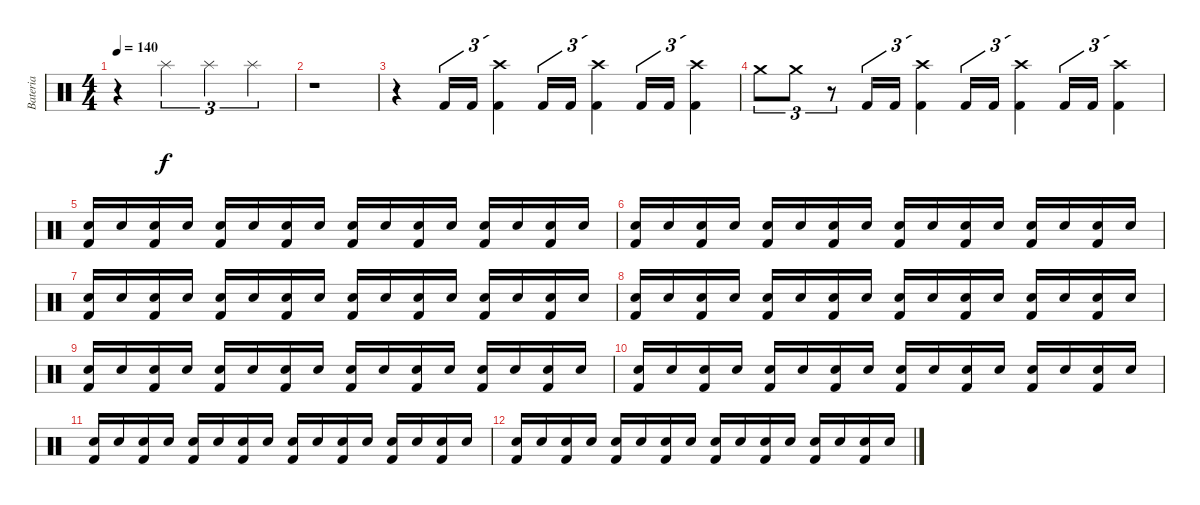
\track ("Bateria" "Bateria") {instrument percussion}
\staff {score}
\articulation defaults
\ts (4 4)
\tempo 140
\clef neutral
\ks c
r.4{dy f} "Splash (hit)".4{tu (3 2)} "Splash (hit)".4{tu (3 2)} "Splash (hit)".4{tu (3 2)} |
r.1 |
r.4 "Kick (hit) 2".16{tu (3 2)} "Kick (hit) 2".16{tu (3 2)} ("Kick (hit) 2" "Crash high (hit)").4{tu (3 2)} "Kick (hit) 2".16{tu (3 2)} "Kick (hit) 2".16{tu (3 2)} ("Kick (hit) 2" "Crash high (hit)").4{tu (3 2)} "Kick (hit) 2".16{tu (3 2)} "Kick (hit) 2".16{tu (3 2)} ("Kick (hit) 2" "Crash high (hit)").4{tu (3 2)} |
"Crash medium (hit)".8{tu (3 2)} "Crash medium (hit)".8{tu (3 2)} r.8{tu (3 2)} "Kick (hit) 2".16{tu (3 2)} "Kick (hit) 2".16{tu (3 2)} ("Kick (hit) 2" "Crash high (hit)").4{tu (3 2)} "Kick (hit) 2".16{tu (3 2)} "Kick (hit) 2".16{tu (3 2)} ("Kick (hit) 2" "Crash high (hit)").4{tu (3 2)} "Kick (hit) 2".16{tu (3 2)} "Kick (hit) 2".16{tu (3 2)} ("Kick (hit) 2" "Crash high (hit)").4{tu (3 2)} |
("Kick (hit) 2" "Electric Snare (hit)").16 "Electric Snare (hit)".16 ("Kick (hit) 2" "Electric Snare (hit)").16 "Electric Snare (hit)".16 ("Kick (hit) 2" "Electric Snare (hit)").16 "Electric Snare (hit)".16 ("Kick (hit) 2" "Electric Snare (hit)").16 "Electric Snare (hit)".16 ("Kick (hit) 2" "Electric Snare (hit)").16 "Electric Snare (hit)".16 ("Kick (hit) 2" "Electric Snare (hit)").16 "Electric Snare (hit)".16 ("Kick (hit) 2" "Electric Snare (hit)").16 "Electric Snare (hit)".16 ("Kick (hit) 2" "Electric Snare (hit)").16 "Electric Snare (hit)".16 |
("Kick (hit) 2" "Electric Snare (hit)").16 "Electric Snare (hit)".16 ("Kick (hit) 2" "Electric Snare (hit)").16 "Electric Snare (hit)".16 ("Kick (hit) 2" "Electric Snare (hit)").16 "Electric Snare (hit)".16 ("Kick (hit) 2" "Electric Snare (hit)").16 "Electric Snare (hit)".16 ("Kick (hit) 2" "Electric Snare (hit)").16 "Electric Snare (hit)".16 ("Kick (hit) 2" "Electric Snare (hit)").16 "Electric Snare (hit)".16 ("Kick (hit) 2" "Electric Snare (hit)").16 "Electric Snare (hit)".16 ("Kick (hit) 2" "Electric Snare (hit)").16 "Electric Snare (hit)".16 |
("Kick (hit) 2" "Electric Snare (hit)").16 "Electric Snare (hit)".16 ("Kick (hit) 2" "Electric Snare (hit)").16 "Electric Snare (hit)".16 ("Kick (hit) 2" "Electric Snare (hit)").16 "Electric Snare (hit)".16 ("Kick (hit) 2" "Electric Snare (hit)").16 "Electric Snare (hit)".16 ("Kick (hit) 2" "Electric Snare (hit)").16 "Electric Snare (hit)".16 ("Kick (hit) 2" "Electric Snare (hit)").16 "Electric Snare (hit)".16 ("Kick (hit) 2" "Electric Snare (hit)").16 "Electric Snare (hit)".16 ("Kick (hit) 2" "Electric Snare (hit)").16 "Electric Snare (hit)".16 |
("Kick (hit) 2" "Electric Snare (hit)").16 "Electric Snare (hit)".16 ("Kick (hit) 2" "Electric Snare (hit)").16 "Electric Snare (hit)".16 ("Kick (hit) 2" "Electric Snare (hit)").16 "Electric Snare (hit)".16 ("Kick (hit) 2" "Electric Snare (hit)").16 "Electric Snare (hit)".16 ("Kick (hit) 2" "Electric Snare (hit)").16 "Electric Snare (hit)".16 ("Kick (hit) 2" "Electric Snare (hit)").16 "Electric Snare (hit)".16 ("Kick (hit) 2" "Electric Snare (hit)").16 "Electric Snare (hit)".16 ("Kick (hit) 2" "Electric Snare (hit)").16 "Electric Snare (hit)".16 |
("Kick (hit) 2" "Electric Snare (hit)").16 "Electric Snare (hit)".16 ("Kick (hit) 2" "Electric Snare (hit)").16 "Electric Snare (hit)".16 ("Kick (hit) 2" "Electric Snare (hit)").16 "Electric Snare (hit)".16 ("Kick (hit) 2" "Electric Snare (hit)").16 "Electric Snare (hit)".16 ("Kick (hit) 2" "Electric Snare (hit)").16 "Electric Snare (hit)".16 ("Kick (hit) 2" "Electric Snare (hit)").16 "Electric Snare (hit)".16 ("Kick (hit) 2" "Electric Snare (hit)").16 "Electric Snare (hit)".16 ("Kick (hit) 2" "Electric Snare (hit)").16 "Electric Snare (hit)".16 |
("Kick (hit) 2" "Electric Snare (hit)").16 "Electric Snare (hit)".16 ("Kick (hit) 2" "Electric Snare (hit)").16 "Electric Snare (hit)".16 ("Kick (hit) 2" "Electric Snare (hit)").16 "Electric Snare (hit)".16 ("Kick (hit) 2" "Electric Snare (hit)").16 "Electric Snare (hit)".16 ("Kick (hit) 2" "Electric Snare (hit)").16 "Electric Snare (hit)".16 ("Kick (hit) 2" "Electric Snare (hit)").16 "Electric Snare (hit)".16 ("Kick (hit) 2" "Electric Snare (hit)").16 "Electric Snare (hit)".16 ("Kick (hit) 2" "Electric Snare (hit)").16 "Electric Snare (hit)".16 |
("Kick (hit) 2" "Electric Snare (hit)").16 "Electric Snare (hit)".16 ("Kick (hit) 2" "Electric Snare (hit)").16 "Electric Snare (hit)".16 ("Kick (hit) 2" "Electric Snare (hit)").16 "Electric Snare (hit)".16 ("Kick (hit) 2" "Electric Snare (hit)").16 "Electric Snare (hit)".16 ("Kick (hit) 2" "Electric Snare (hit)").16 "Electric Snare (hit)".16 ("Kick (hit) 2" "Electric Snare (hit)").16 "Electric Snare (hit)".16 ("Kick (hit) 2" "Electric Snare (hit)").16 "Electric Snare (hit)".16 ("Kick (hit) 2" "Electric Snare (hit)").16 "Electric Snare (hit)".16 |
("Kick (hit) 2" "Electric Snare (hit)").16 "Electric Snare (hit)".16 ("Kick (hit) 2" "Electric Snare (hit)").16 "Electric Snare (hit)".16 ("Kick (hit) 2" "Electric Snare (hit)").16 "Electric Snare (hit)".16 ("Kick (hit) 2" "Electric Snare (hit)").16 "Electric Snare (hit)".16 ("Kick (hit) 2" "Electric Snare (hit)").16 "Electric Snare (hit)".16 ("Kick (hit) 2" "Electric Snare (hit)").16 "Electric Snare (hit)".16 ("Kick (hit) 2" "Electric Snare (hit)").16 "Electric Snare (hit)".16 ("Kick (hit) 2" "Electric Snare (hit)").16 "Electric Snare (hit)".16
